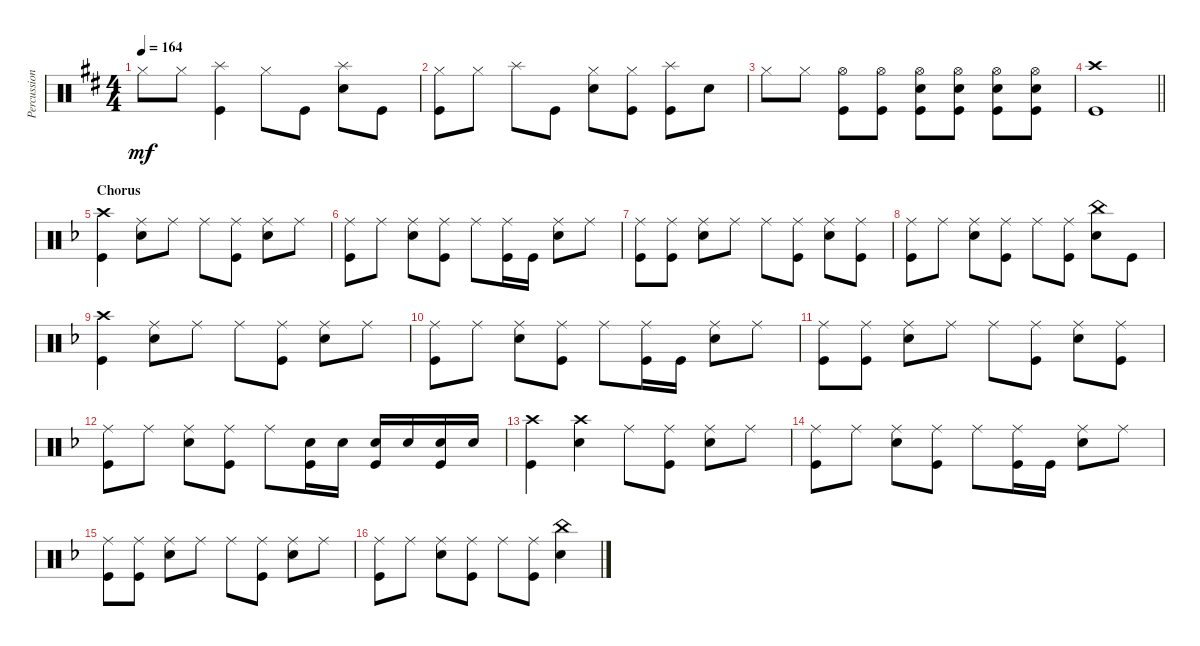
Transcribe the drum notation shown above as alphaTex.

\track ("Percussions" "Percussion") {instrument percussion}
\staff {score}
\articulation defaults
\ts (4 4)
\tempo 164
\clef neutral
\ks bminor "Hi-Hat (closed)".8{dy mf} "Hi-Hat (closed)".8
("Splash (hit)" "Kick (hit)").4 "Hi-Hat (closed)".8 "Kick (hit)".8 ("Splash (hit)" "Electric Snare (hit)").8 "Kick (hit)".8 |
("Hi-Hat (closed)" "Kick (hit)").8 "Hi-Hat (closed)".8 "Splash (hit)".8 "Kick (hit)".8 ("Hi-Hat (closed)" "Electric Snare (hit)").8 ("Hi-Hat (closed)" "Kick (hit)").8 ("Splash (hit)" "Kick (hit)").8 "Electric Snare (hit)".8 |
"Hi-Hat (closed)".8 "Hi-Hat (closed)".8 ("Hi-Hat (open)" "Kick (hit)").8 ("Hi-Hat (open)" "Kick (hit)").8 ("Hi-Hat (open)" "Electric Snare (hit)" "Kick (hit)").8 ("Hi-Hat (open)" "Electric Snare (hit)" "Kick (hit)").8 ("Hi-Hat (open)" "Electric Snare (hit)" "Kick (hit)").8 ("Hi-Hat (open)" "Electric Snare (hit)" "Kick (hit)").8 |
\barLineRight lightlight
("Crash high (hit)" "Kick (hit)").1 |
\section ("" "Chorus")
\ks dminor
("Crash high (hit)" "Kick (hit)").4 ("Ride (middle)" "Electric Snare (hit)").8 "Ride (middle)".8 "Ride (middle)".8 ("Ride (middle)" "Kick (hit)").8 ("Ride (middle)" "Electric Snare (hit)").8 "Ride (middle)".8 |
("Ride (middle)" "Kick (hit)").8 "Ride (middle)".8 ("Ride (middle)" "Electric Snare (hit)").8 ("Ride (middle)" "Kick (hit)").8 "Ride (middle)".8 ("Ride (middle)" "Kick (hit)").16 "Kick (hit)".16 ("Ride (middle)" "Electric Snare (hit)").8 "Ride (middle)".8 |
("Ride (middle)" "Kick (hit)").8 ("Ride (middle)" "Kick (hit)").8 ("Ride (middle)" "Electric Snare (hit)").8 "Ride (middle)".8 "Ride (middle)".8 ("Ride (middle)" "Kick (hit)").8 ("Ride (middle)" "Electric Snare (hit)").8 ("Ride (middle)" "Kick (hit)").8 |
("Ride (middle)" "Kick (hit)").8 "Ride (middle)".8 ("Ride (middle)" "Electric Snare (hit)").8 ("Ride (middle)" "Kick (hit)").8 "Ride (middle)".8 ("Ride (middle)" "Kick (hit)").8 ("China (hit)" "Electric Snare (hit)").8 "Kick (hit)".8 |
("Crash high (hit)" "Kick (hit)").4 ("Ride (middle)" "Electric Snare (hit)").8 "Ride (middle)".8 "Ride (middle)".8 ("Ride (middle)" "Kick (hit)").8 ("Ride (middle)" "Electric Snare (hit)").8 "Ride (middle)".8 |
("Ride (middle)" "Kick (hit)").8 "Ride (middle)".8 ("Ride (middle)" "Electric Snare (hit)").8 ("Ride (middle)" "Kick (hit)").8 "Ride (middle)".8 ("Ride (middle)" "Kick (hit)").16 "Kick (hit)".16 ("Ride (middle)" "Electric Snare (hit)").8 "Ride (middle)".8 |
("Ride (middle)" "Kick (hit)").8 ("Ride (middle)" "Kick (hit)").8 ("Ride (middle)" "Electric Snare (hit)").8 "Ride (middle)".8 "Ride (middle)".8 ("Ride (middle)" "Kick (hit)").8 ("Ride (middle)" "Electric Snare (hit)").8 ("Ride (middle)" "Kick (hit)").8 |
("Ride (middle)" "Kick (hit)").8 "Ride (middle)".8 ("Ride (middle)" "Electric Snare (hit)").8 ("Ride (middle)" "Kick (hit)").8 "Ride (middle)".8 ("Electric Snare (hit)" "Kick (hit)").16 "Electric Snare (hit)".16 ("Electric Snare (hit)" "Kick (hit)").16 "Electric Snare (hit)".16 ("Electric Snare (hit)" "Kick (hit)").16 "Electric Snare (hit)".16 |
("Crash high (hit)" "Kick (hit)").4 ("Crash high (hit)" "Electric Snare (hit)").4 "Ride (middle)".8 ("Ride (middle)" "Kick (hit)").8 ("Ride (middle)" "Electric Snare (hit)").8 "Ride (middle)".8 |
("Ride (middle)" "Kick (hit)").8 "Ride (middle)".8 ("Ride (middle)" "Electric Snare (hit)").8 ("Ride (middle)" "Kick (hit)").8 "Ride (middle)".8 ("Ride (middle)" "Kick (hit)").16 "Kick (hit)".16 ("Ride (middle)" "Electric Snare (hit)").8 "Ride (middle)".8 |
("Ride (middle)" "Kick (hit)").8 ("Ride (middle)" "Kick (hit)").8 ("Ride (middle)" "Electric Snare (hit)").8 "Ride (middle)".8 "Ride (middle)".8 ("Ride (middle)" "Kick (hit)").8 ("Ride (middle)" "Electric Snare (hit)").8 "Ride (middle)".8 |
("Ride (middle)" "Kick (hit)").8 "Ride (middle)".8 ("Ride (middle)" "Electric Snare (hit)").8 ("Ride (middle)" "Kick (hit)").8 "Ride (middle)".8 ("Ride (middle)" "Kick (hit)").8 ("China (hit)" "Electric Snare (hit)").4
